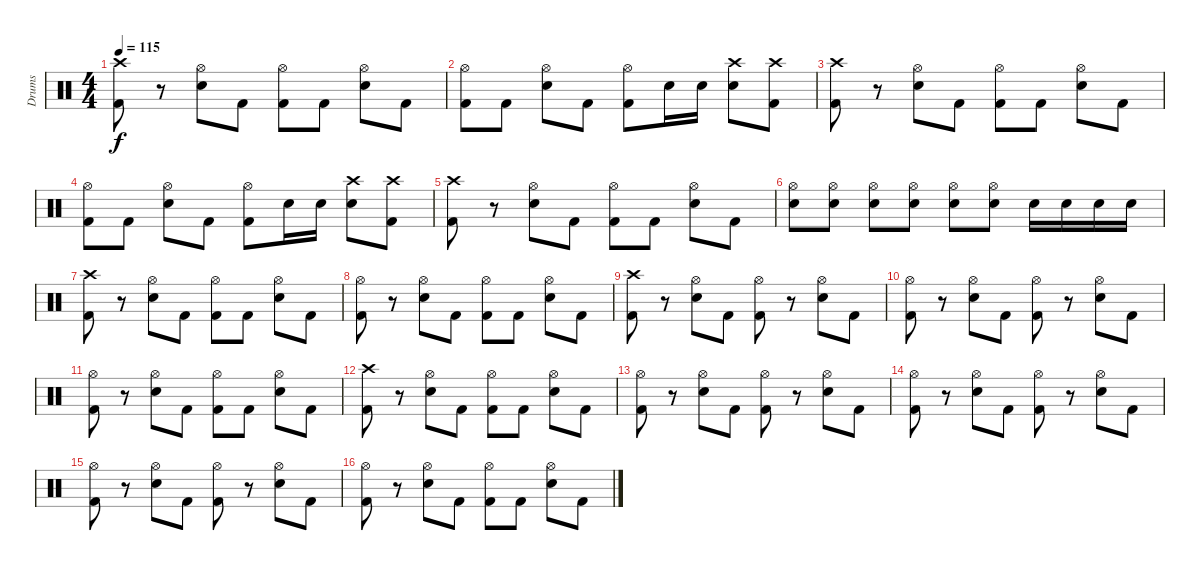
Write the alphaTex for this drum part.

\track ("Drums" "Drums") {instrument percussion}
\staff {score}
\articulation defaults
\ts (4 4)
\tempo 115
\clef neutral
\ks c
("Crash high (hit)" "Kick (hit) 2").8{dy f} r.8 ("Hi-Hat (open)" "Snare (hit) 2").8 "Kick (hit) 2".8 ("Hi-Hat (open)" "Kick (hit) 2").8 "Kick (hit) 2".8 ("Hi-Hat (open)" "Snare (hit) 2").8 "Kick (hit) 2".8 |
("Hi-Hat (open)" "Kick (hit) 2").8 "Kick (hit) 2".8 ("Hi-Hat (open)" "Snare (hit) 2").8 "Kick (hit) 2".8 ("Hi-Hat (open)" "Kick (hit) 2").8 "Snare (hit) 2".16 "Snare (hit) 2".16 ("Crash high (hit)" "Snare (hit) 2").8 ("Crash high (hit)" "Kick (hit) 2").8 |
("Crash high (hit)" "Kick (hit) 2").8 r.8 ("Hi-Hat (open)" "Snare (hit) 2").8 "Kick (hit) 2".8 ("Hi-Hat (open)" "Kick (hit) 2").8 "Kick (hit) 2".8 ("Hi-Hat (open)" "Snare (hit) 2").8 "Kick (hit) 2".8 |
("Hi-Hat (open)" "Kick (hit) 2").8 "Kick (hit) 2".8 ("Hi-Hat (open)" "Snare (hit) 2").8 "Kick (hit) 2".8 ("Hi-Hat (open)" "Kick (hit) 2").8 "Snare (hit) 2".16 "Snare (hit) 2".16 ("Crash high (hit)" "Snare (hit) 2").8 ("Crash high (hit)" "Kick (hit) 2").8 |
("Crash high (hit)" "Kick (hit) 2").8 r.8 ("Hi-Hat (open)" "Snare (hit) 2").8 "Kick (hit) 2".8 ("Hi-Hat (open)" "Kick (hit) 2").8 "Kick (hit) 2".8 ("Hi-Hat (open)" "Snare (hit) 2").8 "Kick (hit) 2".8 |
("Hi-Hat (open)" "Snare (hit) 2").8 ("Hi-Hat (open)" "Snare (hit) 2").8 ("Hi-Hat (open)" "Snare (hit) 2").8 ("Hi-Hat (open)" "Snare (hit) 2").8 ("Hi-Hat (open)" "Snare (hit) 2").8 ("Hi-Hat (open)" "Snare (hit) 2").8 "Snare (hit) 2".16 "Snare (hit) 2".16 "Snare (hit) 2".16 "Snare (hit) 2".16 |
("Crash high (hit)" "Kick (hit) 2").8 r.8 ("Hi-Hat (open)" "Snare (hit) 2").8 "Kick (hit) 2".8 ("Hi-Hat (open)" "Kick (hit) 2").8 "Kick (hit) 2".8 ("Hi-Hat (open)" "Snare (hit) 2").8 "Kick (hit) 2".8 |
("Hi-Hat (open)" "Kick (hit) 2").8 r.8 ("Hi-Hat (open)" "Snare (hit) 2").8 "Kick (hit) 2".8 ("Hi-Hat (open)" "Kick (hit) 2").8 "Kick (hit) 2".8 ("Hi-Hat (open)" "Snare (hit) 2").8 "Kick (hit) 2".8 |
("Crash high (hit)" "Kick (hit) 2").8 r.8 ("Hi-Hat (open)" "Snare (hit) 2").8 "Kick (hit) 2".8 ("Hi-Hat (open)" "Kick (hit) 2").8 r.8 ("Hi-Hat (open)" "Snare (hit) 2").8 "Kick (hit) 2".8 |
("Hi-Hat (open)" "Kick (hit) 2").8 r.8 ("Hi-Hat (open)" "Snare (hit) 2").8 "Kick (hit) 2".8 ("Hi-Hat (open)" "Kick (hit) 2").8 r.8 ("Hi-Hat (open)" "Snare (hit) 2").8 "Kick (hit) 2".8 |
("Hi-Hat (open)" "Kick (hit) 2").8 r.8 ("Hi-Hat (open)" "Snare (hit) 2").8 "Kick (hit) 2".8 ("Hi-Hat (open)" "Kick (hit) 2").8 "Kick (hit) 2".8 ("Hi-Hat (open)" "Snare (hit) 2").8 "Kick (hit) 2".8 |
("Crash high (hit)" "Kick (hit) 2").8 r.8 ("Hi-Hat (open)" "Snare (hit) 2").8 "Kick (hit) 2".8 ("Hi-Hat (open)" "Kick (hit) 2").8 "Kick (hit) 2".8 ("Hi-Hat (open)" "Snare (hit) 2").8 "Kick (hit) 2".8 |
("Hi-Hat (open)" "Kick (hit) 2").8 r.8 ("Hi-Hat (open)" "Snare (hit) 2").8 "Kick (hit) 2".8 ("Hi-Hat (open)" "Kick (hit) 2").8 r.8 ("Hi-Hat (open)" "Snare (hit) 2").8 "Kick (hit) 2".8 |
("Hi-Hat (open)" "Kick (hit) 2").8 r.8 ("Hi-Hat (open)" "Snare (hit) 2").8 "Kick (hit) 2".8 ("Hi-Hat (open)" "Kick (hit) 2").8 r.8 ("Hi-Hat (open)" "Snare (hit) 2").8 "Kick (hit) 2".8 |
("Hi-Hat (open)" "Kick (hit) 2").8 r.8 ("Hi-Hat (open)" "Snare (hit) 2").8 "Kick (hit) 2".8 ("Hi-Hat (open)" "Kick (hit) 2").8 r.8 ("Hi-Hat (open)" "Snare (hit) 2").8 "Kick (hit) 2".8 |
("Hi-Hat (open)" "Kick (hit) 2").8 r.8 ("Hi-Hat (open)" "Snare (hit) 2").8 "Kick (hit) 2".8 ("Hi-Hat (open)" "Kick (hit) 2").8 "Kick (hit) 2".8 ("Hi-Hat (open)" "Snare (hit) 2").8 "Kick (hit) 2".8
